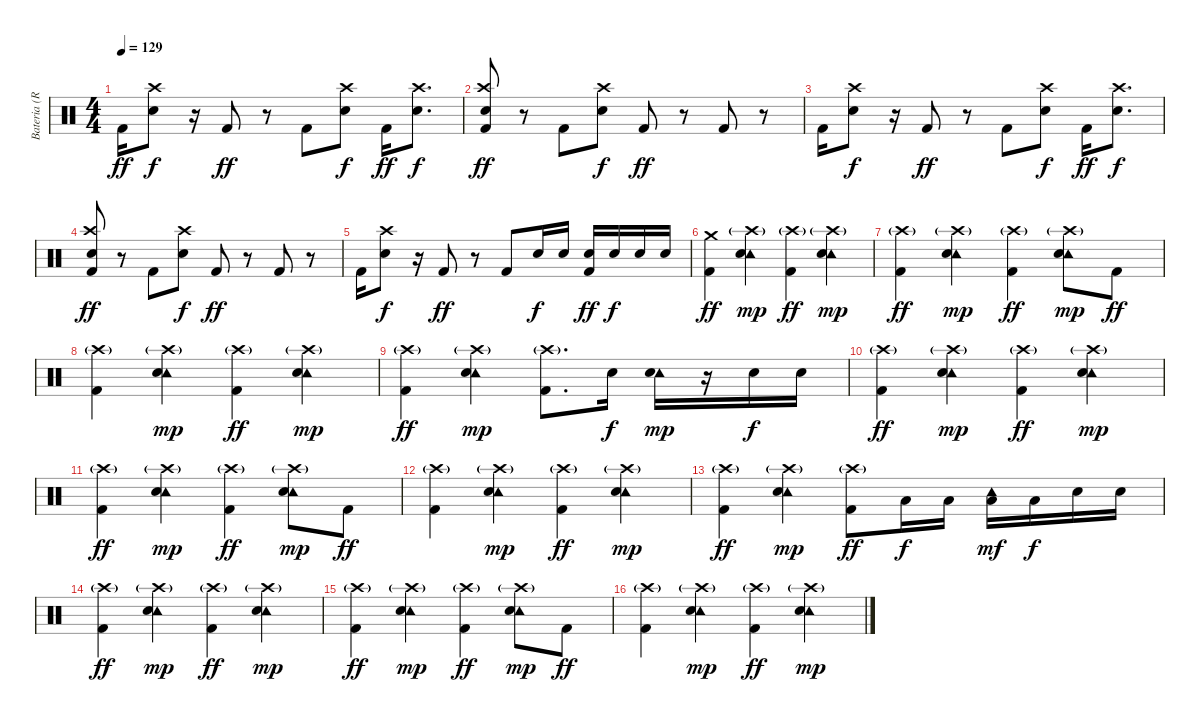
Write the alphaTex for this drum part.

\track ("Bateria (Roy)" "Bateria (R") {instrument percussion}
\staff {score}
\articulation defaults
\ts (4 4)
\tempo 129
\clef neutral
\ks c "Kick (hit) 2".16{dy ff}
("Crash high (hit)" "Electric Snare (hit)").8{dy f} r.16 "Kick (hit) 2".8{dy ff} r.8 "Kick (hit) 2".8 ("Crash high (hit)" "Electric Snare (hit)").8{dy f} "Kick (hit) 2".16{dy ff} ("Crash high (hit)" "Electric Snare (hit)").8{d dy f} |
("Crash high (hit)" "Electric Snare (hit)" "Kick (hit) 2").8{dy ff} r.8 "Kick (hit) 2".8 ("Crash high (hit)" "Electric Snare (hit)").8{dy f} "Kick (hit) 2".8{dy ff} r.8 "Kick (hit) 2".8 r.8 |
"Kick (hit) 2".16 ("Crash high (hit)" "Electric Snare (hit)").8{dy f} r.16 "Kick (hit) 2".8{dy ff} r.8 "Kick (hit) 2".8 ("Crash high (hit)" "Electric Snare (hit)").8{dy f} "Kick (hit) 2".16{dy ff} ("Crash high (hit)" "Electric Snare (hit)").8{d dy f} |
("Crash high (hit)" "Electric Snare (hit)" "Kick (hit) 2").8{dy ff} r.8 "Kick (hit) 2".8 ("Crash high (hit)" "Electric Snare (hit)").8{dy f} "Kick (hit) 2".8{dy ff} r.8 "Kick (hit) 2".8 r.8 |
"Kick (hit) 2".16 ("Crash high (hit)" "Electric Snare (hit)").8{dy f} r.16 "Kick (hit) 2".8{dy ff} r.8 "Kick (hit) 2".8 "Electric Snare (hit)".16{dy f} "Electric Snare (hit)".16 ("Electric Snare (hit)" "Kick (hit) 2").16{dy ff} "Electric Snare (hit)".16{dy f} "Electric Snare (hit)".16 "Electric Snare (hit)".16 |
("Crash medium (hit)" "Kick (hit) 2").4{dy ff} ("Crash high (hit)"{g} "Tambourine (hit)" "Electric Snare (hit)").4{dy mp} ("Crash high (hit)"{g} "Kick (hit) 2").4{dy ff} ("Crash high (hit)"{g} "Tambourine (hit)" "Electric Snare (hit)").4{dy mp} |
("Crash high (hit)"{g} "Kick (hit) 2").4{dy ff} ("Crash high (hit)"{g} "Tambourine (hit)" "Electric Snare (hit)").4{dy mp} ("Crash high (hit)"{g} "Kick (hit) 2").4{dy ff} ("Crash high (hit)"{g} "Tambourine (hit)" "Electric Snare (hit)").8{dy mp} "Kick (hit) 2".8{dy ff} |
("Crash high (hit)"{g} "Kick (hit) 2").4 ("Crash high (hit)"{g} "Tambourine (hit)" "Electric Snare (hit)").4{dy mp} ("Crash high (hit)"{g} "Kick (hit) 2").4{dy ff} ("Crash high (hit)"{g} "Tambourine (hit)" "Electric Snare (hit)").4{dy mp} |
("Crash high (hit)"{g} "Kick (hit) 2").4{dy ff} ("Crash high (hit)"{g} "Tambourine (hit)" "Electric Snare (hit)").4{dy mp} ("Crash high (hit)"{g} "Kick (hit) 2").8{d} "Electric Snare (hit)".16{dy f} ("Tambourine (hit)" "Electric Snare (hit)").16{dy mp} r.16 "Electric Snare (hit)".16{dy f} "Electric Snare (hit)".16 |
("Crash high (hit)"{g} "Kick (hit) 2").4{dy ff} ("Crash high (hit)"{g} "Tambourine (hit)" "Electric Snare (hit)").4{dy mp} ("Crash high (hit)"{g} "Kick (hit) 2").4{dy ff} ("Crash high (hit)"{g} "Tambourine (hit)" "Electric Snare (hit)").4{dy mp} |
("Crash high (hit)"{g} "Kick (hit) 2").4{dy ff} ("Crash high (hit)"{g} "Tambourine (hit)" "Electric Snare (hit)").4{dy mp} ("Crash high (hit)"{g} "Kick (hit) 2").4{dy ff} ("Crash high (hit)"{g} "Tambourine (hit)" "Electric Snare (hit)").8{dy mp} "Kick (hit) 2".8{dy ff} |
("Crash high (hit)"{g} "Kick (hit) 2").4 ("Crash high (hit)"{g} "Tambourine (hit)" "Electric Snare (hit)").4{dy mp} ("Crash high (hit)"{g} "Kick (hit) 2").4{dy ff} ("Crash high (hit)"{g} "Tambourine (hit)" "Electric Snare (hit)").4{dy mp} |
("Crash high (hit)"{g} "Kick (hit) 2").4{dy ff} ("Crash high (hit)"{g} "Tambourine (hit)" "Electric Snare (hit)").4{dy mp} ("Crash high (hit)"{g} "Kick (hit) 2").8{dy ff} "Low Tom (hit)".16{dy f} "Low Tom (hit)".16 ("Tambourine (hit)" "Low Tom (hit)").16{dy mf} "Low Tom (hit)".16{dy f} "Electric Snare (hit)".16 "Electric Snare (hit)".16 |
("Crash high (hit)"{g} "Kick (hit) 2").4{dy ff} ("Crash high (hit)"{g} "Tambourine (hit)" "Electric Snare (hit)").4{dy mp} ("Crash high (hit)"{g} "Kick (hit) 2").4{dy ff} ("Crash high (hit)"{g} "Tambourine (hit)" "Electric Snare (hit)").4{dy mp} |
("Crash high (hit)"{g} "Kick (hit) 2").4{dy ff} ("Crash high (hit)"{g} "Tambourine (hit)" "Electric Snare (hit)").4{dy mp} ("Crash high (hit)"{g} "Kick (hit) 2").4{dy ff} ("Crash high (hit)"{g} "Tambourine (hit)" "Electric Snare (hit)").8{dy mp} "Kick (hit) 2".8{dy ff} |
("Crash high (hit)"{g} "Kick (hit) 2").4 ("Crash high (hit)"{g} "Tambourine (hit)" "Electric Snare (hit)").4{dy mp} ("Crash high (hit)"{g} "Kick (hit) 2").4{dy ff} ("Crash high (hit)"{g} "Tambourine (hit)" "Electric Snare (hit)").4{dy mp}
